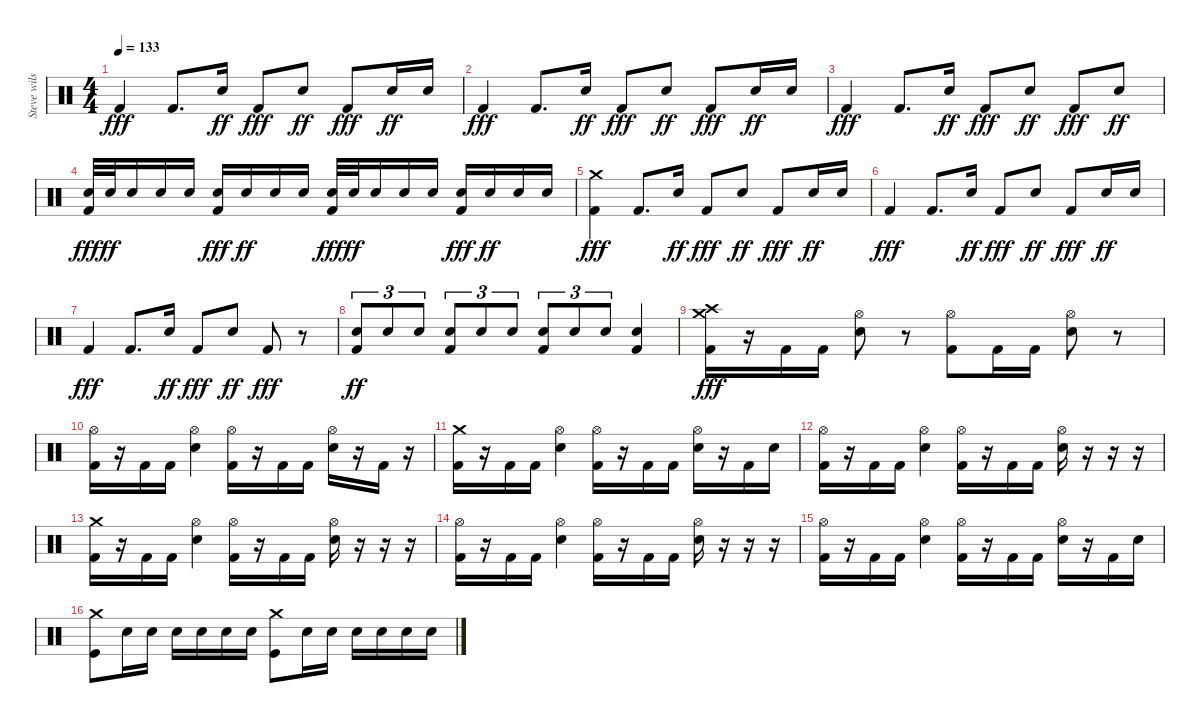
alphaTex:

\track ("Steve wilson" "Steve wils") {instrument percussion}
\staff {score}
\articulation defaults
\ts (4 4)
\tempo 133
\clef neutral
\ks c "Kick (hit) 2".4{dy fff} "Kick (hit) 2".8{d} "Electric Snare (hit)".16{dy ff} "Kick (hit) 2".8{dy fff} "Electric Snare (hit)".8{dy ff} "Kick (hit) 2".8{dy fff} "Electric Snare (hit)".16{dy ff} "Electric Snare (hit)".16
|
"Kick (hit) 2".4{dy fff} "Kick (hit) 2".8{d} "Electric Snare (hit)".16{dy ff} "Kick (hit) 2".8{dy fff} "Electric Snare (hit)".8{dy ff} "Kick (hit) 2".8{dy fff} "Electric Snare (hit)".16{dy ff} "Electric Snare (hit)".16 |
"Kick (hit) 2".4{dy fff} "Kick (hit) 2".8{d} "Electric Snare (hit)".16{dy ff} "Kick (hit) 2".8{dy fff} "Electric Snare (hit)".8{dy ff} "Kick (hit) 2".8{dy fff} "Electric Snare (hit)".8{dy ff} |
("Electric Snare (hit)" "Kick (hit) 2").32{dy fff} "Electric Snare (hit)".32{dy ff} "Electric Snare (hit)".16 "Electric Snare (hit)".16 "Electric Snare (hit)".16 ("Electric Snare (hit)" "Kick (hit) 2").16{dy fff} "Electric Snare (hit)".16{dy ff} "Electric Snare (hit)".16 "Electric Snare (hit)".16 ("Electric Snare (hit)" "Kick (hit) 2").32{dy fff} "Electric Snare (hit)".32{dy ff} "Electric Snare (hit)".16 "Electric Snare (hit)".16 "Electric Snare (hit)".16 ("Electric Snare (hit)" "Kick (hit) 2").16{dy fff} "Electric Snare (hit)".16{dy ff} "Electric Snare (hit)".16 "Electric Snare (hit)".16 |
("Crash medium (hit)" "Kick (hit) 2").4{dy fff} "Kick (hit) 2".8{d} "Electric Snare (hit)".16{dy ff} "Kick (hit) 2".8{dy fff} "Electric Snare (hit)".8{dy ff} "Kick (hit) 2".8{dy fff} "Electric Snare (hit)".16{dy ff} "Electric Snare (hit)".16 |
"Kick (hit) 2".4{dy fff} "Kick (hit) 2".8{d} "Electric Snare (hit)".16{dy ff} "Kick (hit) 2".8{dy fff} "Electric Snare (hit)".8{dy ff} "Kick (hit) 2".8{dy fff} "Electric Snare (hit)".16{dy ff} "Electric Snare (hit)".16 |
"Kick (hit) 2".4{dy fff} "Kick (hit) 2".8{d} "Electric Snare (hit)".16{dy ff} "Kick (hit) 2".8{dy fff} "Electric Snare (hit)".8{dy ff} "Kick (hit) 2".8{dy fff} r.8 |
("Electric Snare (hit)" "Kick (hit) 2").8{tu (3 2) dy ff} "Electric Snare (hit)".8{tu (3 2)} "Electric Snare (hit)".8{tu (3 2)} ("Electric Snare (hit)" "Kick (hit) 2").8{tu (3 2)} "Electric Snare (hit)".8{tu (3 2)} "Electric Snare (hit)".8{tu (3 2)} ("Electric Snare (hit)" "Kick (hit) 2").8{tu (3 2)} "Electric Snare (hit)".8{tu (3 2)} "Electric Snare (hit)".8{tu (3 2)} ("Electric Snare (hit)" "Kick (hit) 2").4 |
("Crash high (hit)" "Crash medium (hit)" "Kick (hit) 2").16{dy fff} r.16 "Kick (hit) 2".16 "Kick (hit) 2".16 ("Hi-Hat (open)" "Electric Snare (hit)").8 r.8 ("Hi-Hat (open)" "Kick (hit) 2").8 "Kick (hit) 2".16 "Kick (hit) 2".16 ("Hi-Hat (open)" "Electric Snare (hit)").8 r.8 |
("Hi-Hat (open)" "Kick (hit) 2").16 r.16 "Kick (hit) 2".16 "Kick (hit) 2".16 ("Hi-Hat (open)" "Electric Snare (hit)").4 ("Hi-Hat (open)" "Kick (hit) 2").16 r.16 "Kick (hit) 2".16 "Kick (hit) 2".16 ("Hi-Hat (open)" "Electric Snare (hit)").16 r.16 "Kick (hit) 2".16 r.16 |
("Crash medium (hit)" "Kick (hit) 2").16 r.16 "Kick (hit) 2".16 "Kick (hit) 2".16 ("Hi-Hat (open)" "Electric Snare (hit)").4 ("Hi-Hat (open)" "Kick (hit) 2").16 r.16 "Kick (hit) 2".16 "Kick (hit) 2".16 ("Hi-Hat (open)" "Electric Snare (hit)").16 r.16 "Kick (hit) 2".16 "Electric Snare (hit)".16 |
("Hi-Hat (open)" "Kick (hit) 2").16 r.16 "Kick (hit) 2".16 "Kick (hit) 2".16 ("Hi-Hat (open)" "Electric Snare (hit)").4 ("Hi-Hat (open)" "Kick (hit) 2").16 r.16 "Kick (hit) 2".16 "Kick (hit) 2".16 ("Hi-Hat (open)" "Electric Snare (hit)").16 r.16 r.16 r.16 |
("Crash medium (hit)" "Kick (hit) 2").16 r.16 "Kick (hit) 2".16 "Kick (hit) 2".16 ("Hi-Hat (open)" "Electric Snare (hit)").4 ("Hi-Hat (open)" "Kick (hit) 2").16 r.16 "Kick (hit) 2".16 "Kick (hit) 2".16 ("Hi-Hat (open)" "Electric Snare (hit)").16 r.16 r.16 r.16 |
("Hi-Hat (open)" "Kick (hit) 2").16 r.16 "Kick (hit) 2".16 "Kick (hit) 2".16 ("Hi-Hat (open)" "Electric Snare (hit)").4 ("Hi-Hat (open)" "Kick (hit) 2").16 r.16 "Kick (hit) 2".16 "Kick (hit) 2".16 ("Hi-Hat (open)" "Electric Snare (hit)").16 r.16 r.16 r.16 |
("Hi-Hat (open)" "Kick (hit) 2").16 r.16 "Kick (hit) 2".16 "Kick (hit) 2".16 ("Hi-Hat (open)" "Electric Snare (hit)").4 ("Hi-Hat (open)" "Kick (hit) 2").16 r.16 "Kick (hit) 2".16 "Kick (hit) 2".16 ("Hi-Hat (open)" "Electric Snare (hit)").16 r.16 "Kick (hit) 2".16 "Electric Snare (hit)".16 |
("Crash medium (hit)" "Kick (hit)").8 "Electric Snare (hit)".16 "Electric Snare (hit)".16 "Electric Snare (hit)".16 "Electric Snare (hit)".16 "Electric Snare (hit)".16 "Electric Snare (hit)".16 ("Crash medium (hit)" "Kick (hit)").8 "Electric Snare (hit)".16 "Electric Snare (hit)".16 "Electric Snare (hit)".16 "Electric Snare (hit)".16 "Electric Snare (hit)".16 "Electric Snare (hit)".16
